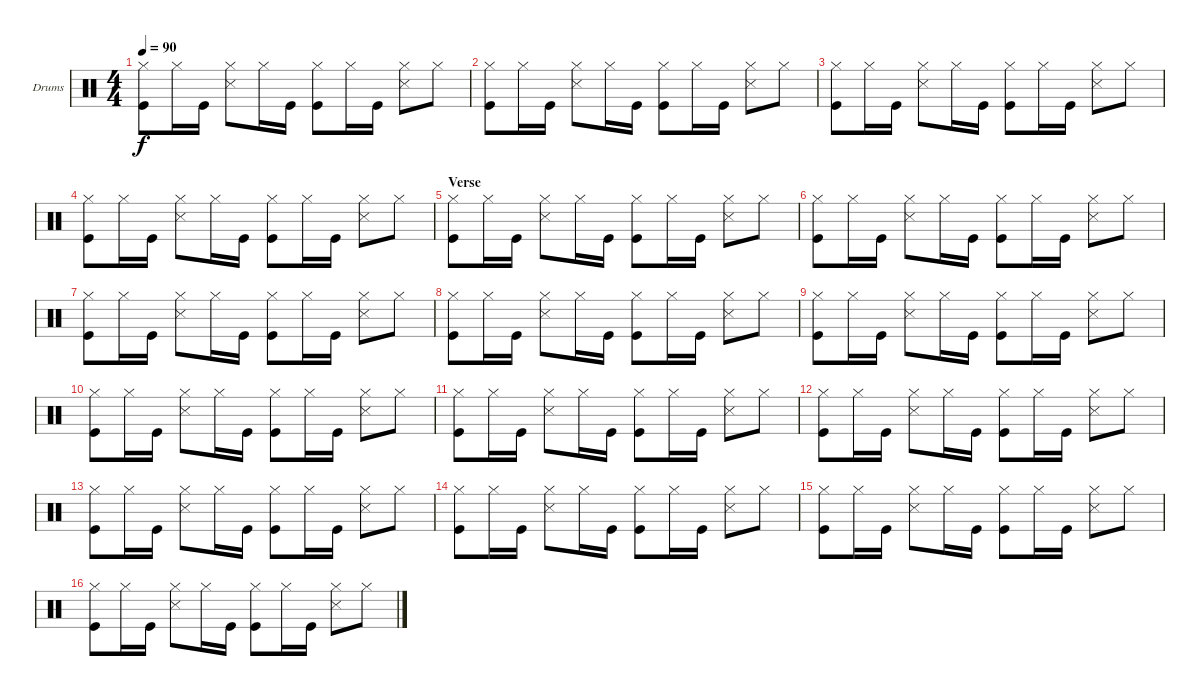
\defaultSystemsLayout 4
\bracketExtendMode groupsimilarinstruments
\firstSystemTrackNameOrientation horizontal
\otherSystemsTrackNameOrientation horizontal
\track ("Drums" "Drums") {instrument percussion}
\staff {score}
\articulation defaults
\ts (4 4)
\tempo 90
\clef neutral
\scale
0.472222
\ks c
("Hi-Hat (closed)" "Kick (hit)").8{dy f} "Hi-Hat (closed)".16 "Kick (hit)".16 ("Hi-Hat (closed)" "Snare (side stick) 3").8 "Hi-Hat (closed)".16 "Kick (hit)".16 ("Hi-Hat (closed)" "Kick (hit)").8 "Hi-Hat (closed)".16 "Kick (hit)".16 ("Snare (side stick) 3" "Hi-Hat (closed)").8 "Hi-Hat (closed)".8 |
\scale
0.263889 ("Hi-Hat (closed)" "Kick (hit)").8 "Hi-Hat (closed)".16 "Kick (hit)".16 ("Hi-Hat (closed)" "Snare (side stick) 3").8 "Hi-Hat (closed)".16 "Kick (hit)".16 ("Hi-Hat (closed)" "Kick (hit)").8 "Hi-Hat (closed)".16 "Kick (hit)".16 ("Snare (side stick) 3" "Hi-Hat (closed)").8 "Hi-Hat (closed)".8 |
\scale
0.263889 ("Hi-Hat (closed)" "Kick (hit)").8 "Hi-Hat (closed)".16 "Kick (hit)".16 ("Hi-Hat (closed)" "Snare (side stick) 3").8 "Hi-Hat (closed)".16 "Kick (hit)".16 ("Hi-Hat (closed)" "Kick (hit)").8 "Hi-Hat (closed)".16 "Kick (hit)".16 ("Snare (side stick) 3" "Hi-Hat (closed)").8 "Hi-Hat (closed)".8 |
\scale
0.333333 ("Hi-Hat (closed)" "Kick (hit)").8 "Hi-Hat (closed)".16 "Kick (hit)".16 ("Hi-Hat (closed)" "Snare (side stick) 3").8 "Hi-Hat (closed)".16 "Kick (hit)".16 ("Hi-Hat (closed)" "Kick (hit)").8 "Hi-Hat (closed)".16 "Kick (hit)".16 ("Snare (side stick) 3" "Hi-Hat (closed)").8 "Hi-Hat (closed)".8 |
\section ("" "Verse")
\scale
0.333333 ("Hi-Hat (closed)" "Kick (hit)").8 "Hi-Hat (closed)".16 "Kick (hit)".16 ("Hi-Hat (closed)" "Snare (side stick) 3").8 "Hi-Hat (closed)".16 "Kick (hit)".16 ("Hi-Hat (closed)" "Kick (hit)").8 "Hi-Hat (closed)".16 "Kick (hit)".16 ("Snare (side stick) 3" "Hi-Hat (closed)").8 "Hi-Hat (closed)".8 |
\scale
0.333333 ("Hi-Hat (closed)" "Kick (hit)").8 "Hi-Hat (closed)".16 "Kick (hit)".16 ("Hi-Hat (closed)" "Snare (side stick) 3").8 "Hi-Hat (closed)".16 "Kick (hit)".16 ("Hi-Hat (closed)" "Kick (hit)").8 "Hi-Hat (closed)".16 "Kick (hit)".16 ("Snare (side stick) 3" "Hi-Hat (closed)").8 "Hi-Hat (closed)".8 |
\scale
0.333333 ("Hi-Hat (closed)" "Kick (hit)").8 "Hi-Hat (closed)".16 "Kick (hit)".16 ("Hi-Hat (closed)" "Snare (side stick) 3").8 "Hi-Hat (closed)".16 "Kick (hit)".16 ("Hi-Hat (closed)" "Kick (hit)").8 "Hi-Hat (closed)".16 "Kick (hit)".16 ("Snare (side stick) 3" "Hi-Hat (closed)").8 "Hi-Hat (closed)".8 |
\scale
0.333333 ("Hi-Hat (closed)" "Kick (hit)").8 "Hi-Hat (closed)".16 "Kick (hit)".16 ("Hi-Hat (closed)" "Snare (side stick) 3").8 "Hi-Hat (closed)".16 "Kick (hit)".16 ("Hi-Hat (closed)" "Kick (hit)").8 "Hi-Hat (closed)".16 "Kick (hit)".16 ("Snare (side stick) 3" "Hi-Hat (closed)").8 "Hi-Hat (closed)".8 |
\scale
0.333333 ("Hi-Hat (closed)" "Kick (hit)").8 "Hi-Hat (closed)".16 "Kick (hit)".16 ("Hi-Hat (closed)" "Snare (side stick) 3").8 "Hi-Hat (closed)".16 "Kick (hit)".16 ("Hi-Hat (closed)" "Kick (hit)").8 "Hi-Hat (closed)".16 "Kick (hit)".16 ("Snare (side stick) 3" "Hi-Hat (closed)").8 "Hi-Hat (closed)".8 |
\scale
0.333333 ("Hi-Hat (closed)" "Kick (hit)").8 "Hi-Hat (closed)".16 "Kick (hit)".16 ("Hi-Hat (closed)" "Snare (side stick) 3").8 "Hi-Hat (closed)".16 "Kick (hit)".16 ("Hi-Hat (closed)" "Kick (hit)").8 "Hi-Hat (closed)".16 "Kick (hit)".16 ("Snare (side stick) 3" "Hi-Hat (closed)").8 "Hi-Hat (closed)".8 |
\scale
0.333333 ("Hi-Hat (closed)" "Kick (hit)").8 "Hi-Hat (closed)".16 "Kick (hit)".16 ("Hi-Hat (closed)" "Snare (side stick) 3").8 "Hi-Hat (closed)".16 "Kick (hit)".16 ("Hi-Hat (closed)" "Kick (hit)").8 "Hi-Hat (closed)".16 "Kick (hit)".16 ("Snare (side stick) 3" "Hi-Hat (closed)").8 "Hi-Hat (closed)".8 |
\scale
0.333333 ("Hi-Hat (closed)" "Kick (hit)").8 "Hi-Hat (closed)".16 "Kick (hit)".16 ("Hi-Hat (closed)" "Snare (side stick) 3").8 "Hi-Hat (closed)".16 "Kick (hit)".16 ("Hi-Hat (closed)" "Kick (hit)").8 "Hi-Hat (closed)".16 "Kick (hit)".16 ("Snare (side stick) 3" "Hi-Hat (closed)").8 "Hi-Hat (closed)".8 |
\scale
0.333333 ("Hi-Hat (closed)" "Kick (hit)").8 "Hi-Hat (closed)".16 "Kick (hit)".16 ("Hi-Hat (closed)" "Snare (side stick) 3").8 "Hi-Hat (closed)".16 "Kick (hit)".16 ("Hi-Hat (closed)" "Kick (hit)").8 "Hi-Hat (closed)".16 "Kick (hit)".16 ("Snare (side stick) 3" "Hi-Hat (closed)").8 "Hi-Hat (closed)".8 |
\scale
0.333333 ("Hi-Hat (closed)" "Kick (hit)").8 "Hi-Hat (closed)".16 "Kick (hit)".16 ("Hi-Hat (closed)" "Snare (side stick) 3").8 "Hi-Hat (closed)".16 "Kick (hit)".16 ("Hi-Hat (closed)" "Kick (hit)").8 "Hi-Hat (closed)".16 "Kick (hit)".16 ("Snare (side stick) 3" "Hi-Hat (closed)").8 "Hi-Hat (closed)".8 |
\scale
0.333333 ("Hi-Hat (closed)" "Kick (hit)").8 "Hi-Hat (closed)".16 "Kick (hit)".16 ("Hi-Hat (closed)" "Snare (side stick) 3").8 "Hi-Hat (closed)".16 "Kick (hit)".16 ("Hi-Hat (closed)" "Kick (hit)").8 "Hi-Hat (closed)".16 "Kick (hit)".16 ("Snare (side stick) 3" "Hi-Hat (closed)").8 "Hi-Hat (closed)".8 |
\scale
0.333333 ("Hi-Hat (closed)" "Kick (hit)").8 "Hi-Hat (closed)".16 "Kick (hit)".16 ("Hi-Hat (closed)" "Snare (side stick) 3").8 "Hi-Hat (closed)".16 "Kick (hit)".16 ("Hi-Hat (closed)" "Kick (hit)").8 "Hi-Hat (closed)".16 "Kick (hit)".16 ("Snare (side stick) 3" "Hi-Hat (closed)").8 "Hi-Hat (closed)".8
